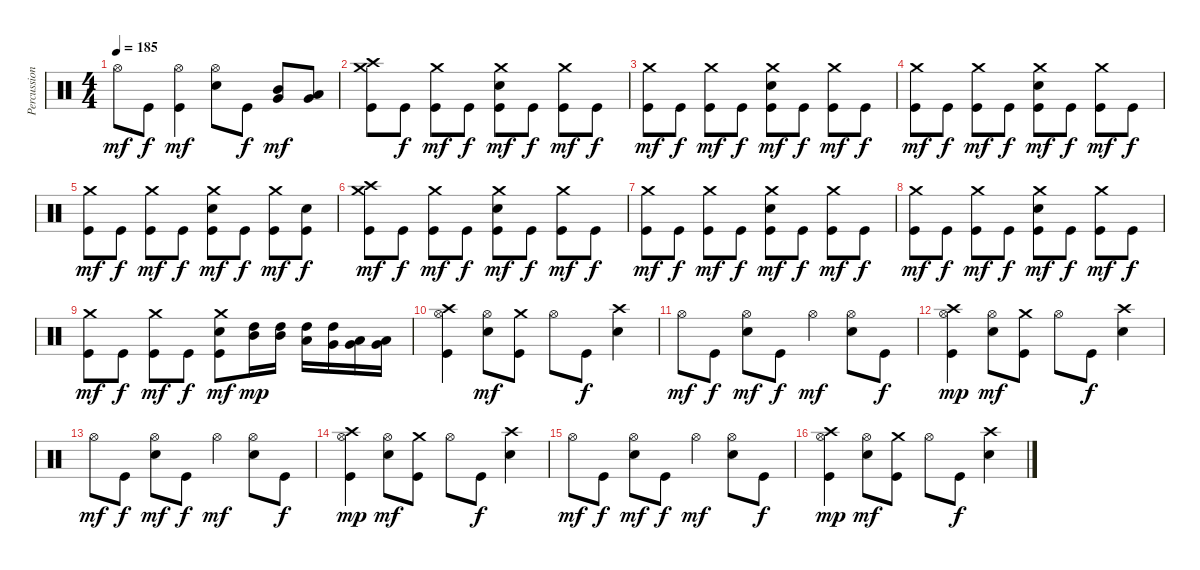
\track ("Percussions" "Percussion") {instrument percussion}
\staff {score}
\articulation defaults
\ts (4 4)
\tempo 185
\clef neutral
\ks c "Hi-Hat (open)".8{dy mf} "Kick (hit)".8{dy f}
("Kick (hit)" "Hi-Hat (open)").4{dy mf} ("Electric Snare (hit)" "Hi-Hat (open)").8 "Kick (hit)".8{dy f} ("Very Low Tom (hit)" "Mid Tom (hit)").8{dy mf} ("Very Low Tom (hit)" "Low Tom (hit)").8 |
("Kick (hit)" "Crash medium (hit)" "Crash high (hit)").8 "Kick (hit)".8{dy f} ("Kick (hit)" "Crash medium (hit)").8{dy mf} "Kick (hit)".8{dy f} ("Kick (hit)" "Electric Snare (hit)" "Crash medium (hit)").8{dy mf} "Kick (hit)".8{dy f} ("Kick (hit)" "Crash medium (hit)").8{dy mf} "Kick (hit)".8{dy f} |
("Kick (hit)" "Crash medium (hit)").8{dy mf} "Kick (hit)".8{dy f} ("Kick (hit)" "Crash medium (hit)").8{dy mf} "Kick (hit)".8{dy f} ("Kick (hit)" "Electric Snare (hit)" "Crash medium (hit)").8{dy mf} "Kick (hit)".8{dy f} ("Kick (hit)" "Crash medium (hit)").8{dy mf} "Kick (hit)".8{dy f} |
("Kick (hit)" "Crash medium (hit)").8{dy mf} "Kick (hit)".8{dy f} ("Kick (hit)" "Crash medium (hit)").8{dy mf} "Kick (hit)".8{dy f} ("Kick (hit)" "Electric Snare (hit)" "Crash medium (hit)").8{dy mf} "Kick (hit)".8{dy f} ("Kick (hit)" "Crash medium (hit)").8{dy mf} "Kick (hit)".8{dy f} |
("Kick (hit)" "Crash medium (hit)").8{dy mf} "Kick (hit)".8{dy f} ("Kick (hit)" "Crash medium (hit)").8{dy mf} "Kick (hit)".8{dy f} ("Kick (hit)" "Electric Snare (hit)" "Crash medium (hit)").8{dy mf} "Kick (hit)".8{dy f} ("Kick (hit)" "Crash medium (hit)").8{dy mf} ("Kick (hit)" "Electric Snare (hit)").8{dy f} |
("Kick (hit)" "Crash medium (hit)" "Crash high (hit)").8{dy mf} "Kick (hit)".8{dy f} ("Kick (hit)" "Crash medium (hit)").8{dy mf} "Kick (hit)".8{dy f} ("Kick (hit)" "Electric Snare (hit)" "Crash medium (hit)").8{dy mf} "Kick (hit)".8{dy f} ("Kick (hit)" "Crash medium (hit)").8{dy mf} "Kick (hit)".8{dy f} |
("Kick (hit)" "Crash medium (hit)").8{dy mf} "Kick (hit)".8{dy f} ("Kick (hit)" "Crash medium (hit)").8{dy mf} "Kick (hit)".8{dy f} ("Kick (hit)" "Electric Snare (hit)" "Crash medium (hit)").8{dy mf} "Kick (hit)".8{dy f} ("Kick (hit)" "Crash medium (hit)").8{dy mf} "Kick (hit)".8{dy f} |
("Kick (hit)" "Crash medium (hit)").8{dy mf} "Kick (hit)".8{dy f} ("Kick (hit)" "Crash medium (hit)").8{dy mf} "Kick (hit)".8{dy f} ("Kick (hit)" "Electric Snare (hit)" "Crash medium (hit)").8{dy mf} "Kick (hit)".8{dy f} ("Kick (hit)" "Crash medium (hit)").8{dy mf} "Kick (hit)".8{dy f} |
("Kick (hit)" "Crash medium (hit)").8{dy mf} "Kick (hit)".8{dy f} ("Kick (hit)" "Crash medium (hit)").8{dy mf} "Kick (hit)".8{dy f} ("Kick (hit)" "Electric Snare (hit)" "Crash medium (hit)").8{dy mf} ("Mid Tom (hit)" "High Tom (hit)").16{dy mp} ("Mid Tom (hit)" "High Tom (hit)").16 ("Low Tom (hit)" "High Tom (hit)").16 ("Very Low Tom (hit)" "High Tom (hit)").16 ("Very Low Tom (hit)" "Low Tom (hit)").16 ("Very Low Tom (hit)" "Low Tom (hit)").16 |
("Kick (hit)" "Hi-Hat (open)" "Crash high (hit)").4 ("Electric Snare (hit)" "Hi-Hat (open)").8{dy mf} ("Kick (hit)" "Crash medium (hit)").8 "Hi-Hat (open)".8 "Kick (hit)".8{dy f} ("Electric Snare (hit)" "Crash high (hit)").4 |
"Hi-Hat (open)".8{dy mf} "Kick (hit)".8{dy f} ("Electric Snare (hit)" "Hi-Hat (open)").8{dy mf} "Kick (hit)".8{dy f} "Hi-Hat (open)".4{dy mf} ("Electric Snare (hit)" "Hi-Hat (open)").8 "Kick (hit)".8{dy f} |
("Kick (hit)" "Hi-Hat (open)" "Crash high (hit)").4{dy mp} ("Electric Snare (hit)" "Hi-Hat (open)").8{dy mf} ("Kick (hit)" "Crash medium (hit)").8 "Hi-Hat (open)".8 "Kick (hit)".8{dy f} ("Electric Snare (hit)" "Crash high (hit)").4 |
"Hi-Hat (open)".8{dy mf} "Kick (hit)".8{dy f} ("Electric Snare (hit)" "Hi-Hat (open)").8{dy mf} "Kick (hit)".8{dy f} "Hi-Hat (open)".4{dy mf} ("Electric Snare (hit)" "Hi-Hat (open)").8 "Kick (hit)".8{dy f} |
("Kick (hit)" "Hi-Hat (open)" "Crash high (hit)").4{dy mp} ("Electric Snare (hit)" "Hi-Hat (open)").8{dy mf} ("Kick (hit)" "Crash medium (hit)").8 "Hi-Hat (open)".8 "Kick (hit)".8{dy f} ("Electric Snare (hit)" "Crash high (hit)").4 |
"Hi-Hat (open)".8{dy mf} "Kick (hit)".8{dy f} ("Electric Snare (hit)" "Hi-Hat (open)").8{dy mf} "Kick (hit)".8{dy f} "Hi-Hat (open)".4{dy mf} ("Electric Snare (hit)" "Hi-Hat (open)").8 "Kick (hit)".8{dy f} |
("Kick (hit)" "Hi-Hat (open)" "Crash high (hit)").4{dy mp} ("Electric Snare (hit)" "Hi-Hat (open)").8{dy mf} ("Kick (hit)" "Crash medium (hit)").8 "Hi-Hat (open)".8 "Kick (hit)".8{dy f} ("Electric Snare (hit)" "Crash high (hit)").4
